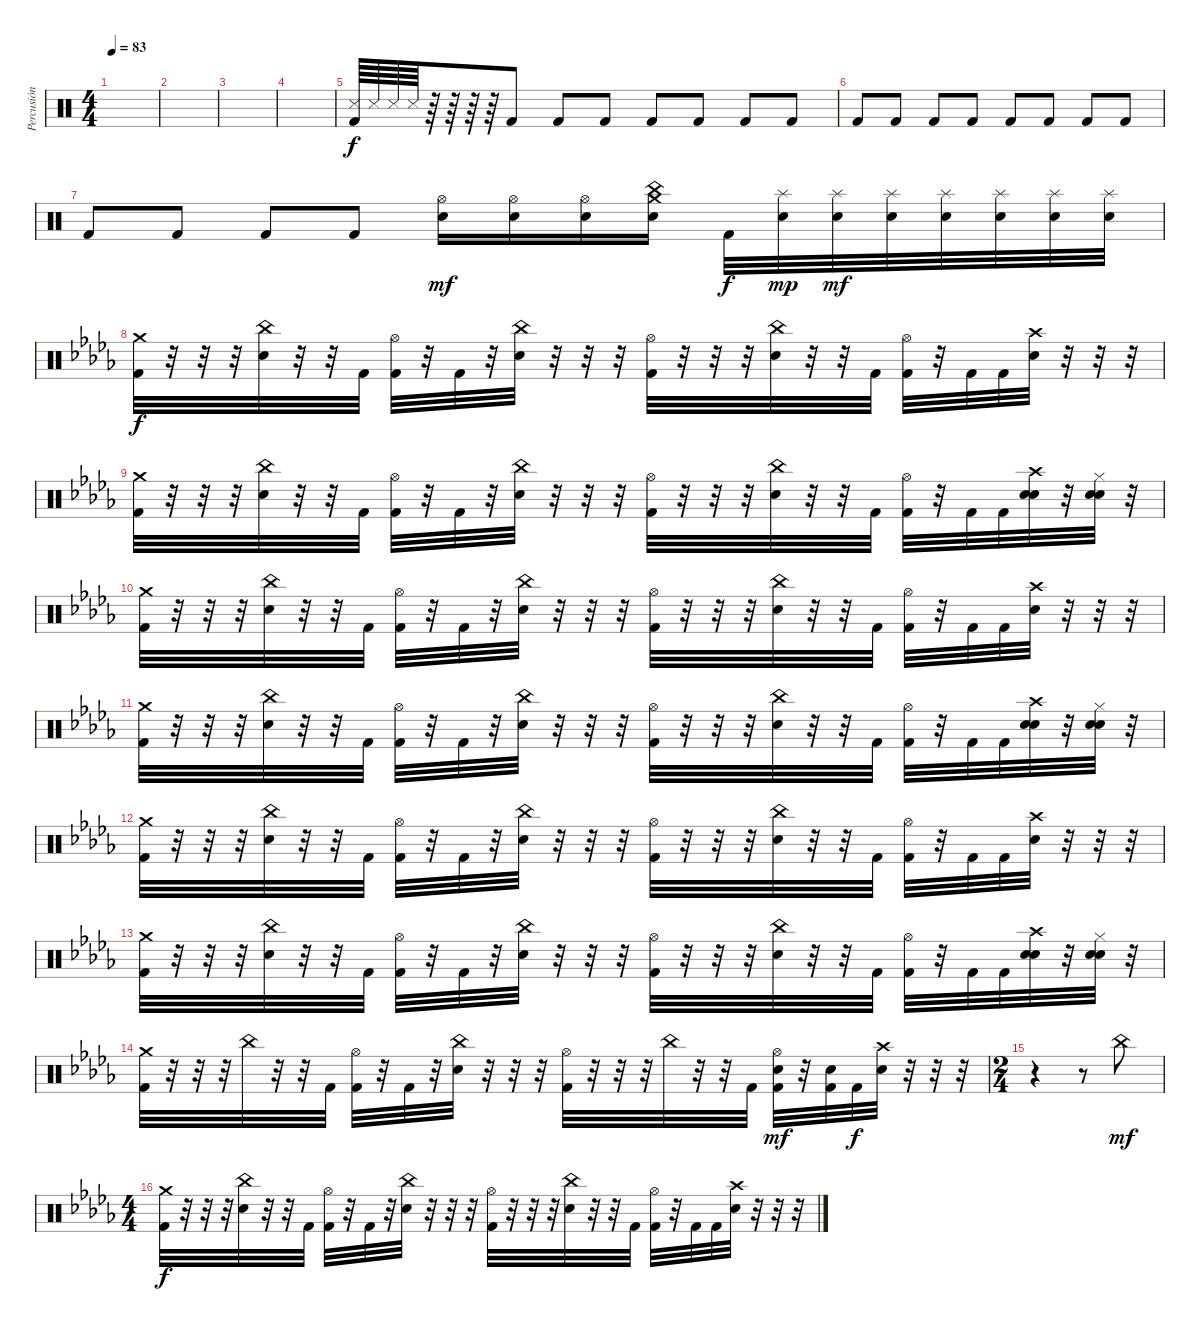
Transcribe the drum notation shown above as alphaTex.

\track ("Percusión" "Percusión") {instrument percussion}
\staff {score}
\articulation defaults
\ts (4 4)
\tempo 83
\clef neutral
\ks c
|
|
|
|
("Snare (side stick) 3" "Kick (hit) 2").64 "Snare (side stick) 3".64 "Snare (side stick) 3".64 "Snare (side stick) 3".64 r.64 r.64 r.64 r.64 "Kick (hit) 2".8 "Kick (hit) 2".8 "Kick (hit) 2".8 "Kick (hit) 2".8 "Kick (hit) 2".8 "Kick (hit) 2".8 "Kick (hit) 2".8 |
"Kick (hit) 2".8 "Kick (hit) 2".8 "Kick (hit) 2".8 "Kick (hit) 2".8 "Kick (hit) 2".8 "Kick (hit) 2".8 "Kick (hit) 2".8 "Kick (hit) 2".8 |
"Kick (hit) 2".8 "Kick (hit) 2".8 "Kick (hit) 2".8 "Kick (hit) 2".8 ("Hi-Hat (open)" "Snare (hit) 2").16{dy mf} ("Hi-Hat (open)" "Snare (hit) 2").16 ("Hi-Hat (open)" "Snare (hit) 2").16 ("Crash medium (hit)" "China (hit)" "Snare (hit) 2").16 "Kick (hit) 2".32{dy f} ("Splash (hit)" "Snare (hit) 2").32{dy mp} ("Splash (hit)" "Snare (hit) 2").32{dy mf} ("Splash (hit)" "Snare (hit) 2").32 ("Splash (hit)" "Snare (hit) 2").32 ("Splash (hit)" "Snare (hit) 2").32 ("Splash (hit)" "Snare (hit) 2").32 ("Splash (hit)" "Snare (hit) 2").32 |
\ks db
("Crash medium (hit)" "Kick (hit) 2").32{dy f} r.32 r.32 r.32 ("China (hit)" "Snare (hit) 2").32 r.32 r.32 "Kick (hit) 2".32 ("Hi-Hat (open)" "Kick (hit) 2").32 r.32 "Kick (hit) 2".32 r.32 ("China (hit)" "Snare (hit) 2").32 r.32 r.32 r.32 ("Hi-Hat (open)" "Kick (hit) 2").32 r.32 r.32 r.32 ("China (hit)" "Snare (hit) 2").32 r.32 r.32 "Kick (hit) 2".32 ("Hi-Hat (open)" "Kick (hit) 2").32 r.32 "Kick (hit) 2".32 "Kick (hit) 2".32 ("Crash high (hit)" "Snare (hit) 2").32 r.32 r.32 r.32 |
("Crash medium (hit)" "Kick (hit) 2").32 r.32 r.32 r.32 ("China (hit)" "Snare (hit) 2").32 r.32 r.32 "Kick (hit) 2".32 ("Hi-Hat (open)" "Kick (hit) 2").32 r.32 "Kick (hit) 2".32 r.32 ("China (hit)" "Snare (hit) 2").32 r.32 r.32 r.32 ("Hi-Hat (open)" "Kick (hit) 2").32 r.32 r.32 r.32 ("China (hit)" "Snare (hit) 2").32 r.32 r.32 "Kick (hit) 2".32 ("Hi-Hat (open)" "Kick (hit) 2").32 r.32 "Kick (hit) 2".32 "Kick (hit) 2".32 ("Crash high (hit)" "Hand Clap (hit)" "Snare (hit) 2").32 r.32 ("Hi-Hat (closed)" "Hand Clap (hit)" "Snare (hit) 2").32 r.32 |
("Crash medium (hit)" "Kick (hit) 2").32 r.32 r.32 r.32 ("China (hit)" "Snare (hit) 2").32 r.32 r.32 "Kick (hit) 2".32 ("Hi-Hat (open)" "Kick (hit) 2").32 r.32 "Kick (hit) 2".32 r.32 ("China (hit)" "Snare (hit) 2").32 r.32 r.32 r.32 ("Hi-Hat (open)" "Kick (hit) 2").32 r.32 r.32 r.32 ("China (hit)" "Snare (hit) 2").32 r.32 r.32 "Kick (hit) 2".32 ("Hi-Hat (open)" "Kick (hit) 2").32 r.32 "Kick (hit) 2".32 "Kick (hit) 2".32 ("Crash high (hit)" "Snare (hit) 2").32 r.32 r.32 r.32 |
("Crash medium (hit)" "Kick (hit) 2").32 r.32 r.32 r.32 ("China (hit)" "Snare (hit) 2").32 r.32 r.32 "Kick (hit) 2".32 ("Hi-Hat (open)" "Kick (hit) 2").32 r.32 "Kick (hit) 2".32 r.32 ("China (hit)" "Snare (hit) 2").32 r.32 r.32 r.32 ("Hi-Hat (open)" "Kick (hit) 2").32 r.32 r.32 r.32 ("China (hit)" "Snare (hit) 2").32 r.32 r.32 "Kick (hit) 2".32 ("Hi-Hat (open)" "Kick (hit) 2").32 r.32 "Kick (hit) 2".32 "Kick (hit) 2".32 ("Crash high (hit)" "Hand Clap (hit)" "Snare (hit) 2").32 r.32 ("Hi-Hat (closed)" "Hand Clap (hit)" "Snare (hit) 2").32 r.32 |
("Crash medium (hit)" "Kick (hit) 2").32 r.32 r.32 r.32 ("China (hit)" "Snare (hit) 2").32 r.32 r.32 "Kick (hit) 2".32 ("Hi-Hat (open)" "Kick (hit) 2").32 r.32 "Kick (hit) 2".32 r.32 ("China (hit)" "Snare (hit) 2").32 r.32 r.32 r.32 ("Hi-Hat (open)" "Kick (hit) 2").32 r.32 r.32 r.32 ("China (hit)" "Snare (hit) 2").32 r.32 r.32 "Kick (hit) 2".32 ("Hi-Hat (open)" "Kick (hit) 2").32 r.32 "Kick (hit) 2".32 "Kick (hit) 2".32 ("Crash high (hit)" "Snare (hit) 2").32 r.32 r.32 r.32 |
("Crash medium (hit)" "Kick (hit) 2").32 r.32 r.32 r.32 ("China (hit)" "Snare (hit) 2").32 r.32 r.32 "Kick (hit) 2".32 ("Hi-Hat (open)" "Kick (hit) 2").32 r.32 "Kick (hit) 2".32 r.32 ("China (hit)" "Snare (hit) 2").32 r.32 r.32 r.32 ("Hi-Hat (open)" "Kick (hit) 2").32 r.32 r.32 r.32 ("China (hit)" "Snare (hit) 2").32 r.32 r.32 "Kick (hit) 2".32 ("Hi-Hat (open)" "Kick (hit) 2").32 r.32 "Kick (hit) 2".32 "Kick (hit) 2".32 ("Crash high (hit)" "Hand Clap (hit)" "Snare (hit) 2").32 r.32 ("Hi-Hat (closed)" "Hand Clap (hit)" "Snare (hit) 2").32 r.32 |
("Crash medium (hit)" "Kick (hit) 2").32 r.32 r.32 r.32 "China (hit)".32 r.32 r.32 "Kick (hit) 2".32 ("Hi-Hat (open)" "Kick (hit) 2").32 r.32 "Kick (hit) 2".32 r.32 ("China (hit)" "Snare (hit) 2").32 r.32 r.32 r.32 ("Hi-Hat (open)" "Kick (hit) 2").32 r.32 r.32 r.32 "China (hit)".32 r.32 r.32 "Kick (hit) 2".32 ("Hi-Hat (open)" "Snare (hit) 2" "Kick (hit) 2").32{dy mf} r.32 ("Snare (hit) 2" "Kick (hit) 2").32 "Kick (hit) 2".32{dy f} ("Crash high (hit)" "Snare (hit) 2").32 r.32 r.32 r.32 |
\ts (2 4)
r.4 r.8 "China (hit)".8{dy mf} |
\ts (4 4)
("Crash medium (hit)" "Kick (hit) 2").32{dy f} r.32 r.32 r.32 ("China (hit)" "Snare (hit) 2").32 r.32 r.32 "Kick (hit) 2".32 ("Hi-Hat (open)" "Kick (hit) 2").32 r.32 "Kick (hit) 2".32 r.32 ("China (hit)" "Snare (hit) 2").32 r.32 r.32 r.32 ("Hi-Hat (open)" "Kick (hit) 2").32 r.32 r.32 r.32 ("China (hit)" "Snare (hit) 2").32 r.32 r.32 "Kick (hit) 2".32 ("Hi-Hat (open)" "Kick (hit) 2").32 r.32 "Kick (hit) 2".32 "Kick (hit) 2".32 ("Crash high (hit)" "Snare (hit) 2").32 r.32 r.32 r.32
